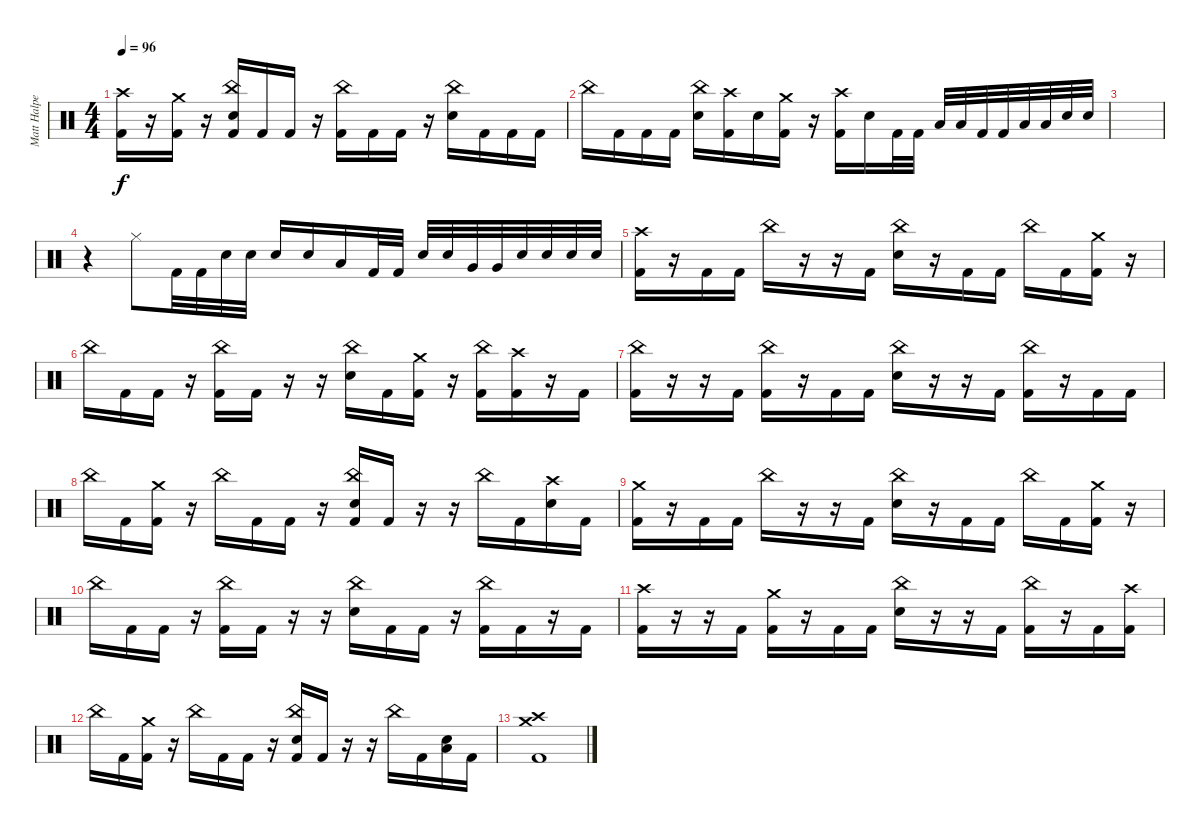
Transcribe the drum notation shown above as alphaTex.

\track ("Matt Halpern" "Matt Halpe") {instrument percussion}
\staff {score}
\articulation defaults
\ts (4 4)
\tempo 96
\clef neutral
\ks c
("Crash high (hit)" "Kick (hit) 2").16{dy f} r.16 ("Crash medium (hit)" "Kick (hit) 2").16 r.16 ("China (hit)" "Snare (hit) 2" "Kick (hit) 2").16 "Kick (hit) 2".16 "Kick (hit) 2".16 r.16 ("China (hit)" "Kick (hit) 2").16 "Kick (hit) 2".16 "Kick (hit) 2".16 r.16 ("China (hit)" "Snare (hit) 2").16 "Kick (hit) 2".16 "Kick (hit) 2".16 "Kick (hit) 2".16 |
"China (hit)".16 "Kick (hit) 2".16 "Kick (hit) 2".16 "Kick (hit) 2".16 ("China (hit)" "Snare (hit) 2").16 ("Crash high (hit)" "Kick (hit) 2").16 "Snare (hit) 2".16 ("Crash medium (hit)" "Kick (hit) 2").16 r.16 ("Crash high (hit)" "Kick (hit) 2").16 "Snare (hit) 2".16 "Kick (hit) 2".32 "Kick (hit) 2".32 "Low Tom (hit)".32 "Low Tom (hit)".32 "Kick (hit) 2".32 "Kick (hit) 2".32 "Low Floor Tom (hit)".32 "Low Floor Tom (hit)".32 "Snare (hit) 2".32 "Snare (hit) 2".32 |
|
r.4 "Hi-Hat (closed)".8 "Kick (hit) 2".32 "Kick (hit) 2".32 "Snare (hit) 2".32 "Snare (hit) 2".32 "Snare (hit) 2".16 "Snare (hit) 2".16 "Low Tom (hit)".16 "Kick (hit) 2".32 "Kick (hit) 2".32 "Snare (hit) 2".32 "Snare (hit) 2".32 "Very Low Tom (hit)".32 "Very Low Tom (hit)".32 "Snare (hit) 2".32 "Snare (hit) 2".32 "Snare (hit) 2".32 "Snare (hit) 2".32 |
("Crash high (hit)" "Kick (hit) 2").16 r.16 "Kick (hit) 2".16 "Kick (hit) 2".16 "China (hit)".16 r.16 r.16 "Kick (hit) 2".16 ("China (hit)" "Snare (hit) 2").16 r.16 "Kick (hit) 2".16 "Kick (hit) 2".16 "China (hit)".16 "Kick (hit) 2".16 ("Crash medium (hit)" "Kick (hit) 2").16 r.16 |
"China (hit)".16 "Kick (hit) 2".16 "Kick (hit) 2".16 r.16 ("China (hit)" "Kick (hit) 2").16 "Kick (hit) 2".16 r.16 r.16 ("China (hit)" "Snare (hit) 2").16 "Kick (hit) 2".16 ("Crash medium (hit)" "Kick (hit) 2").16 r.16 ("China (hit)" "Kick (hit) 2").16 ("Crash high (hit)" "Kick (hit) 2").16 r.16 "Kick (hit) 2".16 |
("China (hit)" "Kick (hit) 2").16 r.16 r.16 "Kick (hit) 2".16 ("China (hit)" "Kick (hit) 2").16 r.16 "Kick (hit) 2".16 "Kick (hit) 2".16 ("China (hit)" "Snare (hit) 2").16 r.16 r.16 "Kick (hit) 2".16 ("China (hit)" "Kick (hit) 2").16 r.16 "Kick (hit) 2".16 "Kick (hit) 2".16 |
"China (hit)".16 "Kick (hit) 2".16 ("Crash medium (hit)" "Kick (hit) 2").16 r.16 "China (hit)".16 "Kick (hit) 2".16 "Kick (hit) 2".16 r.16 ("China (hit)" "Snare (hit) 2" "Kick (hit) 2").16 "Kick (hit) 2".16 r.16 r.16 "China (hit)".16 "Kick (hit) 2".16 ("Crash high (hit)" "Snare (hit) 2").16 "Kick (hit) 2".16 |
("Crash medium (hit)" "Kick (hit) 2").16 r.16 "Kick (hit) 2".16 "Kick (hit) 2".16 "China (hit)".16 r.16 r.16 "Kick (hit) 2".16 ("China (hit)" "Snare (hit) 2").16 r.16 "Kick (hit) 2".16 "Kick (hit) 2".16 "China (hit)".16 "Kick (hit) 2".16 ("Crash medium (hit)" "Kick (hit) 2").16 r.16 |
"China (hit)".16 "Kick (hit) 2".16 "Kick (hit) 2".16 r.16 ("China (hit)" "Kick (hit) 2").16 "Kick (hit) 2".16 r.16 r.16 ("China (hit)" "Snare (hit) 2").16 "Kick (hit) 2".16 "Kick (hit) 2".16 r.16 ("China (hit)" "Kick (hit) 2").16 "Kick (hit) 2".16 r.16 "Kick (hit) 2".16 |
("Crash high (hit)" "Kick (hit) 2").16 r.16 r.16 "Kick (hit) 2".16 ("Crash medium (hit)" "Kick (hit) 2").16 r.16 "Kick (hit) 2".16 "Kick (hit) 2".16 ("China (hit)" "Snare (hit) 2").16 r.16 r.16 "Kick (hit) 2".16 ("China (hit)" "Kick (hit) 2").16 r.16 "Kick (hit) 2".16 ("Crash high (hit)" "Kick (hit) 2").16 |
"China (hit)".16 "Kick (hit) 2".16 ("Crash medium (hit)" "Kick (hit) 2").16 r.16 "China (hit)".16 "Kick (hit) 2".16 "Kick (hit) 2".16 r.16 ("China (hit)" "Snare (hit) 2" "Kick (hit) 2").16 "Kick (hit) 2".16 r.16 r.16 "China (hit)".16 "Kick (hit) 2".16 ("Low Floor Tom (hit)" "Snare (hit) 2").16 "Kick (hit) 2".16 |
("Crash high (hit)" "Crash medium (hit)" "Kick (hit) 2").1
